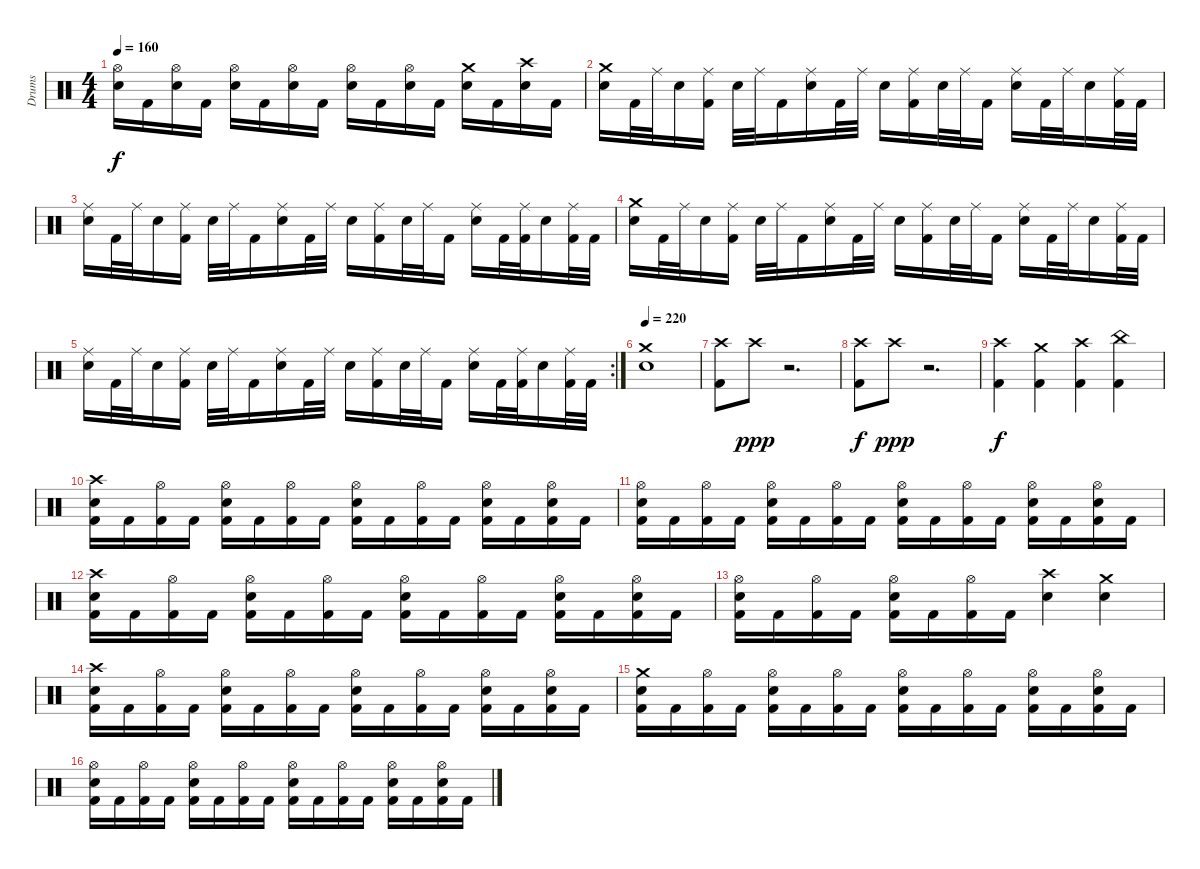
\track ("Drums" "Drums") {instrument percussion}
\staff {score}
\articulation defaults
\ts (4 4)
\tempo 160
\clef neutral
\ks c
("Hi-Hat (open)" "Electric Snare (hit)").16{dy f} "Kick (hit) 2".16 ("Hi-Hat (open)" "Electric Snare (hit)").16 "Kick (hit) 2".16 ("Hi-Hat (open)" "Electric Snare (hit)").16 "Kick (hit) 2".16 ("Hi-Hat (open)" "Electric Snare (hit)").16 "Kick (hit) 2".16 ("Hi-Hat (open)" "Electric Snare (hit)").16 "Kick (hit) 2".16 ("Hi-Hat (open)" "Electric Snare (hit)").16 "Kick (hit) 2".16 ("Crash medium (hit)" "Electric Snare (hit)").16 "Kick (hit) 2".16 ("Crash high (hit)" "Electric Snare (hit)").16 "Kick (hit) 2".16 |
("Crash medium (hit)" "Electric Snare (hit)").16 "Kick (hit) 2".32 "Ride (middle)".32 "Electric Snare (hit)".16 ("Ride (middle)" "Kick (hit) 2").16 "Electric Snare (hit)".32 "Ride (middle)".32 "Kick (hit) 2".16 ("Ride (middle)" "Electric Snare (hit)").16 "Kick (hit) 2".32 "Ride (middle)".32 "Electric Snare (hit)".16 ("Ride (middle)" "Kick (hit) 2").16 "Electric Snare (hit)".32 "Ride (middle)".32 "Kick (hit) 2".16 ("Ride (middle)" "Electric Snare (hit)").16 "Kick (hit) 2".32 "Ride (middle)".32 "Electric Snare (hit)".16 ("Ride (middle)" "Kick (hit) 2").32 "Kick (hit) 2".32 |
("Ride (middle)" "Electric Snare (hit)").16 "Kick (hit) 2".32 "Ride (middle)".32 "Electric Snare (hit)".16 ("Ride (middle)" "Kick (hit) 2").16 "Electric Snare (hit)".32 "Ride (middle)".32 "Kick (hit) 2".16 ("Ride (middle)" "Electric Snare (hit)").16 "Kick (hit) 2".32 "Ride (middle)".32 "Electric Snare (hit)".16 ("Ride (middle)" "Kick (hit) 2").16 "Electric Snare (hit)".32 "Ride (middle)".32 "Kick (hit) 2".16 ("Ride (middle)" "Electric Snare (hit)").16 "Kick (hit) 2".32 ("Ride (middle)" "Kick (hit) 2").32 "Electric Snare (hit)".16 ("Ride (middle)" "Kick (hit) 2").32 "Kick (hit) 2".32 |
("Crash medium (hit)" "Electric Snare (hit)").16 "Kick (hit) 2".32 "Ride (middle)".32 "Electric Snare (hit)".16 ("Ride (middle)" "Kick (hit) 2").16 "Electric Snare (hit)".32 "Ride (middle)".32 "Kick (hit) 2".16 ("Ride (middle)" "Electric Snare (hit)").16 "Kick (hit) 2".32 "Ride (middle)".32 "Electric Snare (hit)".16 ("Ride (middle)" "Kick (hit) 2").16 "Electric Snare (hit)".32 "Ride (middle)".32 "Kick (hit) 2".16 ("Ride (middle)" "Electric Snare (hit)").16 "Kick (hit) 2".32 "Ride (middle)".32 "Electric Snare (hit)".16 ("Ride (middle)" "Kick (hit) 2").32 "Kick (hit) 2".32 |
\rc 2
("Ride (middle)" "Electric Snare (hit)").16 "Kick (hit) 2".32 "Ride (middle)".32 "Electric Snare (hit)".16 ("Ride (middle)" "Kick (hit) 2").16 "Electric Snare (hit)".32 "Ride (middle)".32 "Kick (hit) 2".16 ("Ride (middle)" "Electric Snare (hit)").16 "Kick (hit) 2".32 "Ride (middle)".32 "Electric Snare (hit)".16 ("Ride (middle)" "Kick (hit) 2").16 "Electric Snare (hit)".32 "Ride (middle)".32 "Kick (hit) 2".16 ("Ride (middle)" "Electric Snare (hit)").16 "Kick (hit) 2".32 ("Ride (middle)" "Kick (hit) 2").32 "Electric Snare (hit)".16 ("Ride (middle)" "Kick (hit) 2").32 "Kick (hit) 2".32 |
\tempo 220
("Crash medium (hit)" "Electric Snare (hit)").1 |
("Crash high (hit)" "Kick (hit) 2").8 "Crash high (hit)".8{dy ppp} r.2{d} |
("Crash high (hit)" "Kick (hit) 2").8{dy f} "Crash high (hit)".8{dy ppp} r.2{d} |
("Crash high (hit)" "Kick (hit) 2").4{dy f} ("Crash medium (hit)" "Kick (hit) 2").4 ("Crash high (hit)" "Kick (hit) 2").4 ("China (hit)" "Kick (hit) 2").4 |
("Crash high (hit)" "Electric Snare (hit)" "Kick (hit) 2").16 "Kick (hit) 2".16 ("Hi-Hat (open)" "Kick (hit) 2").16 "Kick (hit) 2".16 ("Hi-Hat (open)" "Electric Snare (hit)" "Kick (hit) 2").16 "Kick (hit) 2".16 ("Hi-Hat (open)" "Kick (hit) 2").16 "Kick (hit) 2".16 ("Hi-Hat (open)" "Electric Snare (hit)" "Kick (hit) 2").16 "Kick (hit) 2".16 ("Hi-Hat (open)" "Kick (hit) 2").16 "Kick (hit) 2".16 ("Hi-Hat (open)" "Electric Snare (hit)" "Kick (hit) 2").16 "Kick (hit) 2".16 ("Hi-Hat (open)" "Electric Snare (hit)" "Kick (hit) 2").16 "Kick (hit) 2".16 |
("Hi-Hat (open)" "Electric Snare (hit)" "Kick (hit) 2").16 "Kick (hit) 2".16 ("Hi-Hat (open)" "Kick (hit) 2").16 "Kick (hit) 2".16 ("Hi-Hat (open)" "Electric Snare (hit)" "Kick (hit) 2").16 "Kick (hit) 2".16 ("Hi-Hat (open)" "Kick (hit) 2").16 "Kick (hit) 2".16 ("Hi-Hat (open)" "Electric Snare (hit)" "Kick (hit) 2").16 "Kick (hit) 2".16 ("Hi-Hat (open)" "Kick (hit) 2").16 "Kick (hit) 2".16 ("Hi-Hat (open)" "Electric Snare (hit)" "Kick (hit) 2").16 "Kick (hit) 2".16 ("Hi-Hat (open)" "Electric Snare (hit)" "Kick (hit) 2").16 "Kick (hit) 2".16 |
("Crash high (hit)" "Electric Snare (hit)" "Kick (hit) 2").16 "Kick (hit) 2".16 ("Hi-Hat (open)" "Kick (hit) 2").16 "Kick (hit) 2".16 ("Hi-Hat (open)" "Electric Snare (hit)" "Kick (hit) 2").16 "Kick (hit) 2".16 ("Hi-Hat (open)" "Kick (hit) 2").16 "Kick (hit) 2".16 ("Hi-Hat (open)" "Electric Snare (hit)" "Kick (hit) 2").16 "Kick (hit) 2".16 ("Hi-Hat (open)" "Kick (hit) 2").16 "Kick (hit) 2".16 ("Hi-Hat (open)" "Electric Snare (hit)" "Kick (hit) 2").16 "Kick (hit) 2".16 ("Hi-Hat (open)" "Electric Snare (hit)" "Kick (hit) 2").16 "Kick (hit) 2".16 |
("Hi-Hat (open)" "Electric Snare (hit)" "Kick (hit) 2").16 "Kick (hit) 2".16 ("Hi-Hat (open)" "Kick (hit) 2").16 "Kick (hit) 2".16 ("Hi-Hat (open)" "Electric Snare (hit)" "Kick (hit) 2").16 "Kick (hit) 2".16 ("Hi-Hat (open)" "Kick (hit) 2").16 "Kick (hit) 2".16 ("Crash high (hit)" "Electric Snare (hit)").4 ("Crash medium (hit)" "Electric Snare (hit)").4 |
("Crash high (hit)" "Electric Snare (hit)" "Kick (hit) 2").16 "Kick (hit) 2".16 ("Hi-Hat (open)" "Kick (hit) 2").16 "Kick (hit) 2".16 ("Hi-Hat (open)" "Electric Snare (hit)" "Kick (hit) 2").16 "Kick (hit) 2".16 ("Hi-Hat (open)" "Kick (hit) 2").16 "Kick (hit) 2".16 ("Hi-Hat (open)" "Electric Snare (hit)" "Kick (hit) 2").16 "Kick (hit) 2".16 ("Hi-Hat (open)" "Kick (hit) 2").16 "Kick (hit) 2".16 ("Hi-Hat (open)" "Electric Snare (hit)" "Kick (hit) 2").16 "Kick (hit) 2".16 ("Hi-Hat (open)" "Electric Snare (hit)" "Kick (hit) 2").16 "Kick (hit) 2".16 |
("Crash medium (hit)" "Electric Snare (hit)" "Kick (hit) 2").16 "Kick (hit) 2".16 ("Hi-Hat (open)" "Kick (hit) 2").16 "Kick (hit) 2".16 ("Hi-Hat (open)" "Electric Snare (hit)" "Kick (hit) 2").16 "Kick (hit) 2".16 ("Hi-Hat (open)" "Kick (hit) 2").16 "Kick (hit) 2".16 ("Hi-Hat (open)" "Electric Snare (hit)" "Kick (hit) 2").16 "Kick (hit) 2".16 ("Hi-Hat (open)" "Kick (hit) 2").16 "Kick (hit) 2".16 ("Hi-Hat (open)" "Electric Snare (hit)" "Kick (hit) 2").16 "Kick (hit) 2".16 ("Hi-Hat (open)" "Electric Snare (hit)" "Kick (hit) 2").16 "Kick (hit) 2".16 |
("Hi-Hat (open)" "Electric Snare (hit)" "Kick (hit) 2").16 "Kick (hit) 2".16 ("Hi-Hat (open)" "Kick (hit) 2").16 "Kick (hit) 2".16 ("Hi-Hat (open)" "Electric Snare (hit)" "Kick (hit) 2").16 "Kick (hit) 2".16 ("Hi-Hat (open)" "Kick (hit) 2").16 "Kick (hit) 2".16 ("Hi-Hat (open)" "Electric Snare (hit)" "Kick (hit) 2").16 "Kick (hit) 2".16 ("Hi-Hat (open)" "Kick (hit) 2").16 "Kick (hit) 2".16 ("Hi-Hat (open)" "Electric Snare (hit)" "Kick (hit) 2").16 "Kick (hit) 2".16 ("Hi-Hat (open)" "Electric Snare (hit)" "Kick (hit) 2").16 "Kick (hit) 2".16
